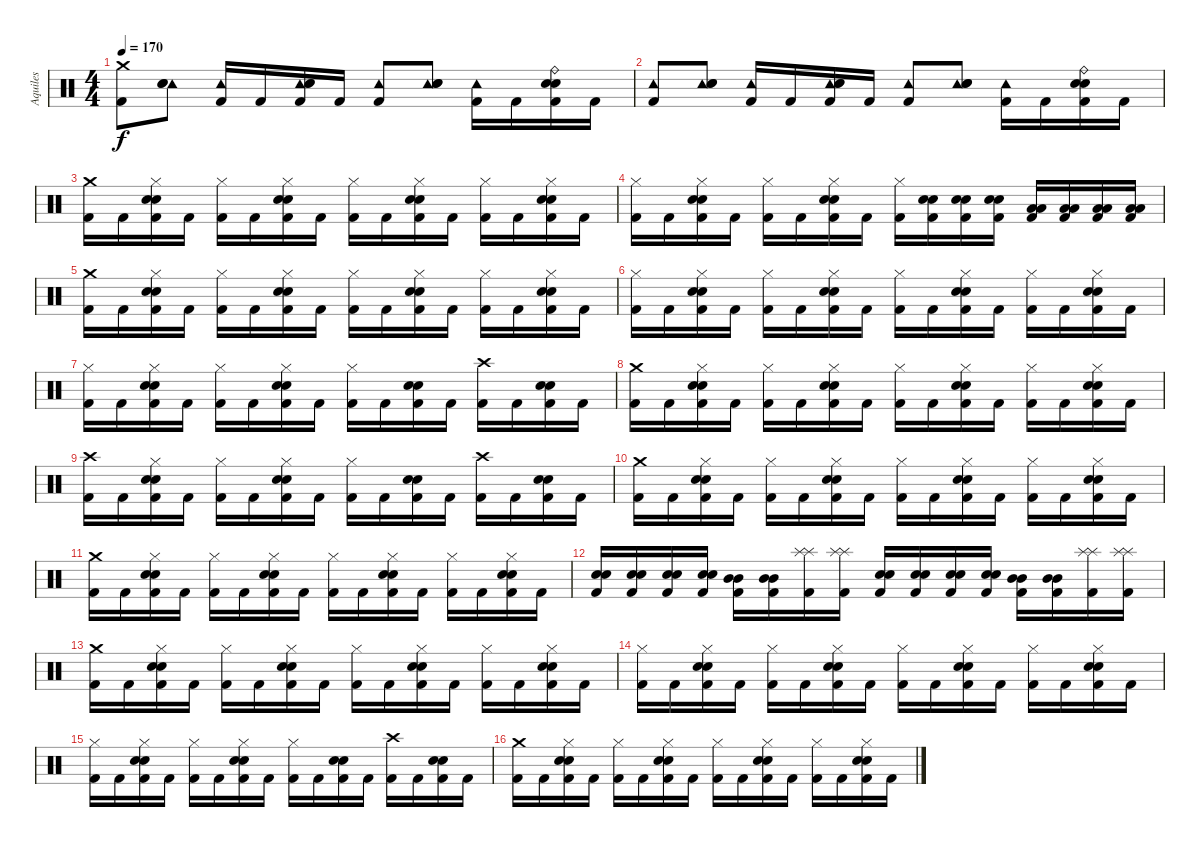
\track ("Aquiles" "Aquiles") {instrument percussion}
\staff {score}
\articulation defaults
\ts (4 4)
\tempo 170
\clef neutral
\ks c
("Crash medium (hit)" "Kick (hit) 2").8{dy f} ("Tambourine (hit)" "Electric Snare (hit)" "Snare (hit) 2").8 ("Tambourine (hit)" "Kick (hit) 2").16 "Kick (hit) 2".16 ("Tambourine (hit)" "Electric Snare (hit)" "Snare (hit) 2" "Kick (hit) 2").16 "Kick (hit) 2".16 ("Tambourine (hit)" "Kick (hit) 2").8 ("Tambourine (hit)" "Electric Snare (hit)" "Snare (hit) 2").8 ("Tambourine (hit)" "Kick (hit) 2").16 "Kick (hit) 2".16 ("Ride (bell)" "Electric Snare (hit)" "Snare (hit) 2" "Kick (hit) 2").16 "Kick (hit) 2".16 |
("Tambourine (hit)" "Kick (hit) 2").8 ("Tambourine (hit)" "Electric Snare (hit)" "Snare (hit) 2").8 ("Tambourine (hit)" "Kick (hit) 2").16 "Kick (hit) 2".16 ("Tambourine (hit)" "Electric Snare (hit)" "Snare (hit) 2" "Kick (hit) 2").16 "Kick (hit) 2".16 ("Tambourine (hit)" "Kick (hit) 2").8 ("Tambourine (hit)" "Electric Snare (hit)" "Snare (hit) 2").8 ("Tambourine (hit)" "Kick (hit) 2").16 "Kick (hit) 2".16 ("Ride (bell)" "Electric Snare (hit)" "Snare (hit) 2" "Kick (hit) 2").16 "Kick (hit) 2".16 |
("Crash medium (hit)" "Kick (hit) 2").16 "Kick (hit) 2".16 ("Hi-Hat (closed)" "Electric Snare (hit)" "Snare (hit) 2" "Kick (hit) 2").16 "Kick (hit) 2".16 ("Hi-Hat (closed)" "Kick (hit) 2").16 "Kick (hit) 2".16 ("Hi-Hat (closed)" "Electric Snare (hit)" "Snare (hit) 2" "Kick (hit) 2").16 "Kick (hit) 2".16 ("Hi-Hat (closed)" "Kick (hit) 2").16 "Kick (hit) 2".16 ("Hi-Hat (closed)" "Electric Snare (hit)" "Snare (hit) 2" "Kick (hit) 2").16 "Kick (hit) 2".16 ("Hi-Hat (closed)" "Kick (hit) 2").16 "Kick (hit) 2".16 ("Hi-Hat (closed)" "Electric Snare (hit)" "Snare (hit) 2" "Kick (hit) 2").16 "Kick (hit) 2".16 |
("Hi-Hat (closed)" "Kick (hit) 2").16 "Kick (hit) 2".16 ("Hi-Hat (closed)" "Electric Snare (hit)" "Snare (hit) 2" "Kick (hit) 2").16 "Kick (hit) 2".16 ("Hi-Hat (closed)" "Kick (hit) 2").16 "Kick (hit) 2".16 ("Hi-Hat (closed)" "Electric Snare (hit)" "Snare (hit) 2" "Kick (hit) 2").16 "Kick (hit) 2".16 ("Hi-Hat (closed)" "Kick (hit) 2").16 ("Electric Snare (hit)" "Snare (hit) 2" "Kick (hit) 2").16 ("Electric Snare (hit)" "Snare (hit) 2" "Kick (hit) 2").16 ("Electric Snare (hit)" "Snare (hit) 2" "Kick (hit) 2").16 ("Low Tom (hit)" "Low Tom (hit)" "Kick (hit) 2").16 ("Low Tom (hit)" "Low Tom (hit)" "Kick (hit) 2").16 ("Low Floor Tom (hit)" "Low Floor Tom (hit)" "Kick (hit) 2").16 ("Low Floor Tom (hit)" "Low Floor Tom (hit)" "Kick (hit) 2").16 |
("Crash medium (hit)" "Kick (hit) 2").16 "Kick (hit) 2".16 ("Hi-Hat (closed)" "Electric Snare (hit)" "Snare (hit) 2" "Kick (hit) 2").16 "Kick (hit) 2".16 ("Hi-Hat (closed)" "Kick (hit) 2").16 "Kick (hit) 2".16 ("Hi-Hat (closed)" "Electric Snare (hit)" "Snare (hit) 2" "Kick (hit) 2").16 "Kick (hit) 2".16 ("Hi-Hat (closed)" "Kick (hit) 2").16 "Kick (hit) 2".16 ("Hi-Hat (closed)" "Electric Snare (hit)" "Snare (hit) 2" "Kick (hit) 2").16 "Kick (hit) 2".16 ("Hi-Hat (closed)" "Kick (hit) 2").16 "Kick (hit) 2".16 ("Hi-Hat (closed)" "Electric Snare (hit)" "Snare (hit) 2" "Kick (hit) 2").16 "Kick (hit) 2".16 |
("Hi-Hat (closed)" "Kick (hit) 2").16 "Kick (hit) 2".16 ("Hi-Hat (closed)" "Electric Snare (hit)" "Snare (hit) 2" "Kick (hit) 2").16 "Kick (hit) 2".16 ("Hi-Hat (closed)" "Kick (hit) 2").16 "Kick (hit) 2".16 ("Hi-Hat (closed)" "Electric Snare (hit)" "Snare (hit) 2" "Kick (hit) 2").16 "Kick (hit) 2".16 ("Hi-Hat (closed)" "Kick (hit) 2").16 "Kick (hit) 2".16 ("Hi-Hat (closed)" "Electric Snare (hit)" "Snare (hit) 2" "Kick (hit) 2").16 "Kick (hit) 2".16 ("Hi-Hat (closed)" "Kick (hit) 2").16 "Kick (hit) 2".16 ("Hi-Hat (closed)" "Electric Snare (hit)" "Snare (hit) 2" "Kick (hit) 2").16 "Kick (hit) 2".16 |
("Hi-Hat (closed)" "Kick (hit) 2").16 "Kick (hit) 2".16 ("Hi-Hat (closed)" "Electric Snare (hit)" "Snare (hit) 2" "Kick (hit) 2").16 "Kick (hit) 2".16 ("Hi-Hat (closed)" "Kick (hit) 2").16 "Kick (hit) 2".16 ("Hi-Hat (closed)" "Electric Snare (hit)" "Snare (hit) 2" "Kick (hit) 2").16 "Kick (hit) 2".16 ("Hi-Hat (closed)" "Kick (hit) 2").16 "Kick (hit) 2".16 ("Electric Snare (hit)" "Snare (hit) 2" "Kick (hit) 2").16 "Kick (hit) 2".16 ("Crash high (hit)" "Kick (hit) 2").16 "Kick (hit) 2".16 ("Electric Snare (hit)" "Snare (hit) 2" "Kick (hit) 2").16 "Kick (hit) 2".16 |
("Crash medium (hit)" "Kick (hit) 2").16 "Kick (hit) 2".16 ("Hi-Hat (closed)" "Electric Snare (hit)" "Snare (hit) 2" "Kick (hit) 2").16 "Kick (hit) 2".16 ("Hi-Hat (closed)" "Kick (hit) 2").16 "Kick (hit) 2".16 ("Hi-Hat (closed)" "Electric Snare (hit)" "Snare (hit) 2" "Kick (hit) 2").16 "Kick (hit) 2".16 ("Hi-Hat (closed)" "Kick (hit) 2").16 "Kick (hit) 2".16 ("Hi-Hat (closed)" "Electric Snare (hit)" "Snare (hit) 2" "Kick (hit) 2").16 "Kick (hit) 2".16 ("Hi-Hat (closed)" "Kick (hit) 2").16 "Kick (hit) 2".16 ("Hi-Hat (closed)" "Electric Snare (hit)" "Snare (hit) 2" "Kick (hit) 2").16 "Kick (hit) 2".16 |
("Crash high (hit)" "Kick (hit) 2").16 "Kick (hit) 2".16 ("Hi-Hat (closed)" "Electric Snare (hit)" "Snare (hit) 2" "Kick (hit) 2").16 "Kick (hit) 2".16 ("Hi-Hat (closed)" "Kick (hit) 2").16 "Kick (hit) 2".16 ("Hi-Hat (closed)" "Electric Snare (hit)" "Snare (hit) 2" "Kick (hit) 2").16 "Kick (hit) 2".16 ("Hi-Hat (closed)" "Kick (hit) 2").16 "Kick (hit) 2".16 ("Electric Snare (hit)" "Snare (hit) 2" "Kick (hit) 2").16 "Kick (hit) 2".16 ("Crash high (hit)" "Kick (hit) 2").16 "Kick (hit) 2".16 ("Electric Snare (hit)" "Snare (hit) 2" "Kick (hit) 2").16 "Kick (hit) 2".16 |
("Crash medium (hit)" "Kick (hit) 2").16 "Kick (hit) 2".16 ("Hi-Hat (closed)" "Electric Snare (hit)" "Snare (hit) 2" "Kick (hit) 2").16 "Kick (hit) 2".16 ("Hi-Hat (closed)" "Kick (hit) 2").16 "Kick (hit) 2".16 ("Hi-Hat (closed)" "Electric Snare (hit)" "Snare (hit) 2" "Kick (hit) 2").16 "Kick (hit) 2".16 ("Hi-Hat (closed)" "Kick (hit) 2").16 "Kick (hit) 2".16 ("Hi-Hat (closed)" "Electric Snare (hit)" "Snare (hit) 2" "Kick (hit) 2").16 "Kick (hit) 2".16 ("Hi-Hat (closed)" "Kick (hit) 2").16 "Kick (hit) 2".16 ("Hi-Hat (closed)" "Electric Snare (hit)" "Snare (hit) 2" "Kick (hit) 2").16 "Kick (hit) 2".16 |
("Crash medium (hit)" "Kick (hit) 2").16 "Kick (hit) 2".16 ("Hi-Hat (closed)" "Electric Snare (hit)" "Snare (hit) 2" "Kick (hit) 2").16 "Kick (hit) 2".16 ("Hi-Hat (closed)" "Kick (hit) 2").16 "Kick (hit) 2".16 ("Hi-Hat (closed)" "Electric Snare (hit)" "Snare (hit) 2" "Kick (hit) 2").16 "Kick (hit) 2".16 ("Hi-Hat (closed)" "Kick (hit) 2").16 "Kick (hit) 2".16 ("Hi-Hat (closed)" "Electric Snare (hit)" "Snare (hit) 2" "Kick (hit) 2").16 "Kick (hit) 2".16 ("Hi-Hat (closed)" "Kick (hit) 2").16 "Kick (hit) 2".16 ("Hi-Hat (closed)" "Electric Snare (hit)" "Snare (hit) 2" "Kick (hit) 2").16 "Kick (hit) 2".16 |
("Electric Snare (hit)" "Snare (hit) 2" "Kick (hit) 2").16 ("Electric Snare (hit)" "Snare (hit) 2" "Kick (hit) 2").16 ("Electric Snare (hit)" "Snare (hit) 2" "Kick (hit) 2").16 ("Electric Snare (hit)" "Snare (hit) 2" "Kick (hit) 2").16 ("Mid Tom (hit)" "Mid Tom (hit)" "Kick (hit) 2").16 ("Mid Tom (hit)" "Mid Tom (hit)" "Kick (hit) 2").16 ("Splash (hit)" "Splash (hit)" "Kick (hit) 2").16 ("Splash (hit)" "Splash (hit)" "Kick (hit) 2").16 ("Electric Snare (hit)" "Snare (hit) 2" "Kick (hit) 2").16 ("Electric Snare (hit)" "Snare (hit) 2" "Kick (hit) 2").16 ("Electric Snare (hit)" "Snare (hit) 2" "Kick (hit) 2").16 ("Electric Snare (hit)" "Snare (hit) 2" "Kick (hit) 2").16 ("Mid Tom (hit)" "Mid Tom (hit)" "Kick (hit) 2").16 ("Mid Tom (hit)" "Mid Tom (hit)" "Kick (hit) 2").16 ("Splash (hit)" "Splash (hit)" "Kick (hit) 2").16 ("Splash (hit)" "Splash (hit)" "Kick (hit) 2").16 |
("Crash medium (hit)" "Kick (hit) 2").16 "Kick (hit) 2".16 ("Hi-Hat (closed)" "Electric Snare (hit)" "Snare (hit) 2" "Kick (hit) 2").16 "Kick (hit) 2".16 ("Hi-Hat (closed)" "Kick (hit) 2").16 "Kick (hit) 2".16 ("Hi-Hat (closed)" "Electric Snare (hit)" "Snare (hit) 2" "Kick (hit) 2").16 "Kick (hit) 2".16 ("Hi-Hat (closed)" "Kick (hit) 2").16 "Kick (hit) 2".16 ("Hi-Hat (closed)" "Electric Snare (hit)" "Snare (hit) 2" "Kick (hit) 2").16 "Kick (hit) 2".16 ("Hi-Hat (closed)" "Kick (hit) 2").16 "Kick (hit) 2".16 ("Hi-Hat (closed)" "Electric Snare (hit)" "Snare (hit) 2" "Kick (hit) 2").16 "Kick (hit) 2".16 |
("Hi-Hat (closed)" "Kick (hit) 2").16 "Kick (hit) 2".16 ("Hi-Hat (closed)" "Electric Snare (hit)" "Snare (hit) 2" "Kick (hit) 2").16 "Kick (hit) 2".16 ("Hi-Hat (closed)" "Kick (hit) 2").16 "Kick (hit) 2".16 ("Hi-Hat (closed)" "Electric Snare (hit)" "Snare (hit) 2" "Kick (hit) 2").16 "Kick (hit) 2".16 ("Hi-Hat (closed)" "Kick (hit) 2").16 "Kick (hit) 2".16 ("Hi-Hat (closed)" "Electric Snare (hit)" "Snare (hit) 2" "Kick (hit) 2").16 "Kick (hit) 2".16 ("Hi-Hat (closed)" "Kick (hit) 2").16 "Kick (hit) 2".16 ("Hi-Hat (closed)" "Electric Snare (hit)" "Snare (hit) 2" "Kick (hit) 2").16 "Kick (hit) 2".16 |
("Hi-Hat (closed)" "Kick (hit) 2").16 "Kick (hit) 2".16 ("Hi-Hat (closed)" "Electric Snare (hit)" "Snare (hit) 2" "Kick (hit) 2").16 "Kick (hit) 2".16 ("Hi-Hat (closed)" "Kick (hit) 2").16 "Kick (hit) 2".16 ("Hi-Hat (closed)" "Electric Snare (hit)" "Snare (hit) 2" "Kick (hit) 2").16 "Kick (hit) 2".16 ("Hi-Hat (closed)" "Kick (hit) 2").16 "Kick (hit) 2".16 ("Electric Snare (hit)" "Snare (hit) 2" "Kick (hit) 2").16 "Kick (hit) 2".16 ("Crash high (hit)" "Kick (hit) 2").16 "Kick (hit) 2".16 ("Electric Snare (hit)" "Snare (hit) 2" "Kick (hit) 2").16 "Kick (hit) 2".16 |
("Crash medium (hit)" "Kick (hit) 2").16 "Kick (hit) 2".16 ("Hi-Hat (closed)" "Electric Snare (hit)" "Snare (hit) 2" "Kick (hit) 2").16 "Kick (hit) 2".16 ("Hi-Hat (closed)" "Kick (hit) 2").16 "Kick (hit) 2".16 ("Hi-Hat (closed)" "Electric Snare (hit)" "Snare (hit) 2" "Kick (hit) 2").16 "Kick (hit) 2".16 ("Hi-Hat (closed)" "Kick (hit) 2").16 "Kick (hit) 2".16 ("Hi-Hat (closed)" "Electric Snare (hit)" "Snare (hit) 2" "Kick (hit) 2").16 "Kick (hit) 2".16 ("Hi-Hat (closed)" "Kick (hit) 2").16 "Kick (hit) 2".16 ("Hi-Hat (closed)" "Electric Snare (hit)" "Snare (hit) 2" "Kick (hit) 2").16 "Kick (hit) 2".16
